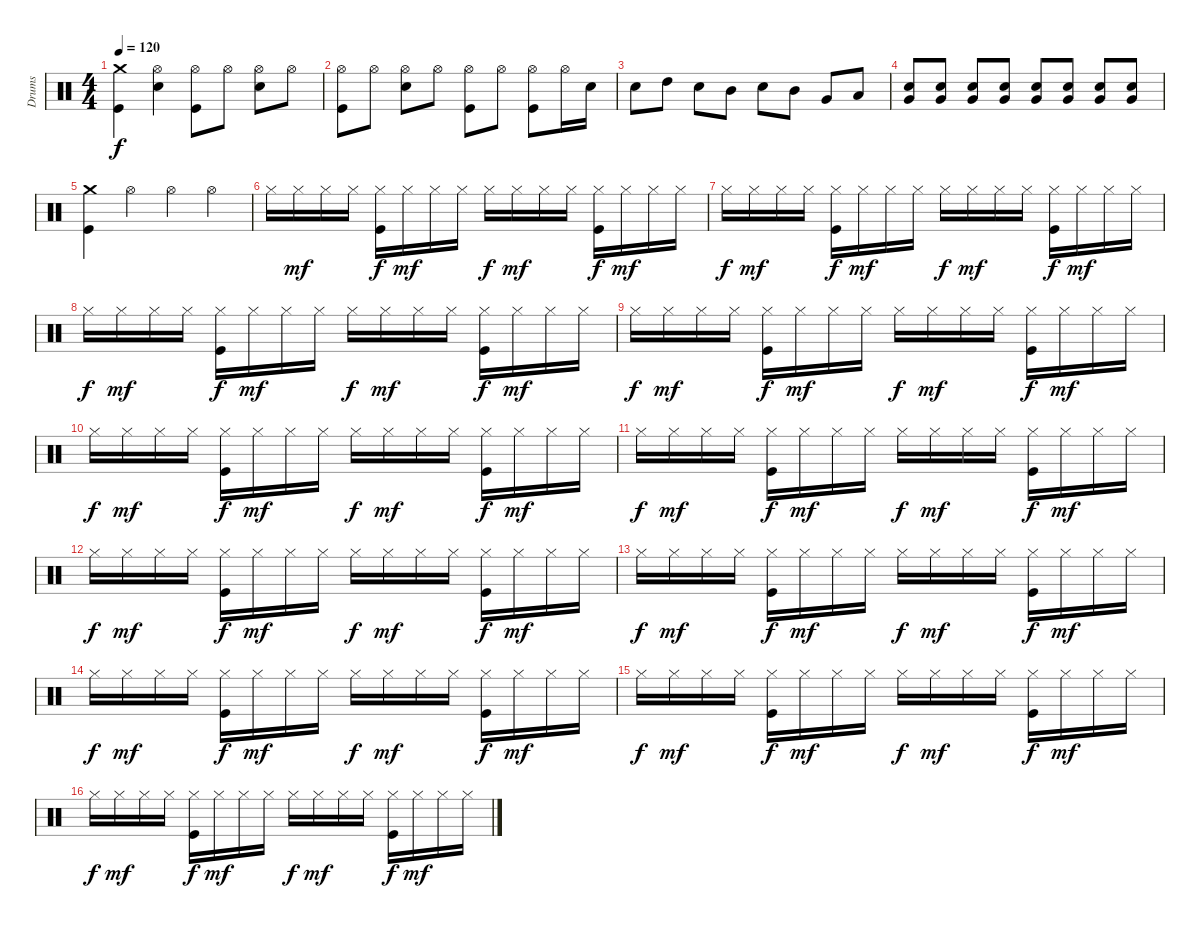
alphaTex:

\track ("Drums" "Drums") {instrument percussion}
\staff {score}
\articulation defaults
\ts (4 4)
\tempo 120
\clef neutral
\ks c
("Kick (hit)" "Crash medium (hit)").4{dy f} ("Electric Snare (hit)" "Hi-Hat (open)").4 ("Kick (hit)" "Hi-Hat (open)").8 "Hi-Hat (open)".8 ("Electric Snare (hit)" "Hi-Hat (open)").8 "Hi-Hat (open)".8 |
("Kick (hit)" "Hi-Hat (open)").8 "Hi-Hat (open)".8 ("Electric Snare (hit)" "Hi-Hat (open)").8 "Hi-Hat (open)".8 ("Kick (hit)" "Hi-Hat (open)").8 "Hi-Hat (open)".8 ("Kick (hit)" "Hi-Hat (open)").8 "Hi-Hat (open)".16 "Electric Snare (hit)".16 |
"Electric Snare (hit)".8 "High Tom (hit)".8 "Electric Snare (hit)".8 "Mid Tom (hit)".8 "Electric Snare (hit)".8 "Mid Tom (hit)".8 "Very Low Tom (hit)".8 "Low Floor Tom (hit)".8 |
("Electric Snare (hit)" "Very Low Tom (hit)").8 ("Electric Snare (hit)" "Very Low Tom (hit)").8 ("Electric Snare (hit)" "Very Low Tom (hit)").8 ("Electric Snare (hit)" "Very Low Tom (hit)").8 ("Electric Snare (hit)" "Very Low Tom (hit)").8 ("Electric Snare (hit)" "Very Low Tom (hit)").8 ("Electric Snare (hit)" "Very Low Tom (hit)").8 ("Electric Snare (hit)" "Very Low Tom (hit)").8 |
("Kick (hit)" "Crash medium (hit)").4 "Hi-Hat (open)".4 "Hi-Hat (open)".4 "Hi-Hat (open)".4 |
"Hi-Hat (closed)".16 "Hi-Hat (closed)".16{dy mf} "Hi-Hat (closed)".16 "Hi-Hat (closed)".16 ("Kick (hit)" "Hi-Hat (closed)").16{dy f} "Hi-Hat (closed)".16{dy mf} "Hi-Hat (closed)".16 "Hi-Hat (closed)".16 "Hi-Hat (closed)".16{dy f} "Hi-Hat (closed)".16{dy mf} "Hi-Hat (closed)".16 "Hi-Hat (closed)".16 ("Kick (hit)" "Hi-Hat (closed)").16{dy f} "Hi-Hat (closed)".16{dy mf} "Hi-Hat (closed)".16 "Hi-Hat (closed)".16 |
"Hi-Hat (closed)".16{dy f} "Hi-Hat (closed)".16{dy mf} "Hi-Hat (closed)".16 "Hi-Hat (closed)".16 ("Kick (hit)" "Hi-Hat (closed)").16{dy f} "Hi-Hat (closed)".16{dy mf} "Hi-Hat (closed)".16 "Hi-Hat (closed)".16 "Hi-Hat (closed)".16{dy f} "Hi-Hat (closed)".16{dy mf} "Hi-Hat (closed)".16 "Hi-Hat (closed)".16 ("Kick (hit)" "Hi-Hat (closed)").16{dy f} "Hi-Hat (closed)".16{dy mf} "Hi-Hat (closed)".16 "Hi-Hat (closed)".16 |
"Hi-Hat (closed)".16{dy f} "Hi-Hat (closed)".16{dy mf} "Hi-Hat (closed)".16 "Hi-Hat (closed)".16 ("Kick (hit)" "Hi-Hat (closed)").16{dy f} "Hi-Hat (closed)".16{dy mf} "Hi-Hat (closed)".16 "Hi-Hat (closed)".16 "Hi-Hat (closed)".16{dy f} "Hi-Hat (closed)".16{dy mf} "Hi-Hat (closed)".16 "Hi-Hat (closed)".16 ("Kick (hit)" "Hi-Hat (closed)").16{dy f} "Hi-Hat (closed)".16{dy mf} "Hi-Hat (closed)".16 "Hi-Hat (closed)".16 |
"Hi-Hat (closed)".16{dy f} "Hi-Hat (closed)".16{dy mf} "Hi-Hat (closed)".16 "Hi-Hat (closed)".16 ("Kick (hit)" "Hi-Hat (closed)").16{dy f} "Hi-Hat (closed)".16{dy mf} "Hi-Hat (closed)".16 "Hi-Hat (closed)".16 "Hi-Hat (closed)".16{dy f} "Hi-Hat (closed)".16{dy mf} "Hi-Hat (closed)".16 "Hi-Hat (closed)".16 ("Kick (hit)" "Hi-Hat (closed)").16{dy f} "Hi-Hat (closed)".16{dy mf} "Hi-Hat (closed)".16 "Hi-Hat (closed)".16 |
"Hi-Hat (closed)".16{dy f} "Hi-Hat (closed)".16{dy mf} "Hi-Hat (closed)".16 "Hi-Hat (closed)".16 ("Kick (hit)" "Hi-Hat (closed)").16{dy f} "Hi-Hat (closed)".16{dy mf} "Hi-Hat (closed)".16 "Hi-Hat (closed)".16 "Hi-Hat (closed)".16{dy f} "Hi-Hat (closed)".16{dy mf} "Hi-Hat (closed)".16 "Hi-Hat (closed)".16 ("Kick (hit)" "Hi-Hat (closed)").16{dy f} "Hi-Hat (closed)".16{dy mf} "Hi-Hat (closed)".16 "Hi-Hat (closed)".16 |
"Hi-Hat (closed)".16{dy f} "Hi-Hat (closed)".16{dy mf} "Hi-Hat (closed)".16 "Hi-Hat (closed)".16 ("Kick (hit)" "Hi-Hat (closed)").16{dy f} "Hi-Hat (closed)".16{dy mf} "Hi-Hat (closed)".16 "Hi-Hat (closed)".16 "Hi-Hat (closed)".16{dy f} "Hi-Hat (closed)".16{dy mf} "Hi-Hat (closed)".16 "Hi-Hat (closed)".16 ("Kick (hit)" "Hi-Hat (closed)").16{dy f} "Hi-Hat (closed)".16{dy mf} "Hi-Hat (closed)".16 "Hi-Hat (closed)".16 |
"Hi-Hat (closed)".16{dy f} "Hi-Hat (closed)".16{dy mf} "Hi-Hat (closed)".16 "Hi-Hat (closed)".16 ("Kick (hit)" "Hi-Hat (closed)").16{dy f} "Hi-Hat (closed)".16{dy mf} "Hi-Hat (closed)".16 "Hi-Hat (closed)".16 "Hi-Hat (closed)".16{dy f} "Hi-Hat (closed)".16{dy mf} "Hi-Hat (closed)".16 "Hi-Hat (closed)".16 ("Kick (hit)" "Hi-Hat (closed)").16{dy f} "Hi-Hat (closed)".16{dy mf} "Hi-Hat (closed)".16 "Hi-Hat (closed)".16 |
"Hi-Hat (closed)".16{dy f} "Hi-Hat (closed)".16{dy mf} "Hi-Hat (closed)".16 "Hi-Hat (closed)".16 ("Kick (hit)" "Hi-Hat (closed)").16{dy f} "Hi-Hat (closed)".16{dy mf} "Hi-Hat (closed)".16 "Hi-Hat (closed)".16 "Hi-Hat (closed)".16{dy f} "Hi-Hat (closed)".16{dy mf} "Hi-Hat (closed)".16 "Hi-Hat (closed)".16 ("Kick (hit)" "Hi-Hat (closed)").16{dy f} "Hi-Hat (closed)".16{dy mf} "Hi-Hat (closed)".16 "Hi-Hat (closed)".16 |
"Hi-Hat (closed)".16{dy f} "Hi-Hat (closed)".16{dy mf} "Hi-Hat (closed)".16 "Hi-Hat (closed)".16 ("Kick (hit)" "Hi-Hat (closed)").16{dy f} "Hi-Hat (closed)".16{dy mf} "Hi-Hat (closed)".16 "Hi-Hat (closed)".16 "Hi-Hat (closed)".16{dy f} "Hi-Hat (closed)".16{dy mf} "Hi-Hat (closed)".16 "Hi-Hat (closed)".16 ("Kick (hit)" "Hi-Hat (closed)").16{dy f} "Hi-Hat (closed)".16{dy mf} "Hi-Hat (closed)".16 "Hi-Hat (closed)".16 |
"Hi-Hat (closed)".16{dy f} "Hi-Hat (closed)".16{dy mf} "Hi-Hat (closed)".16 "Hi-Hat (closed)".16 ("Kick (hit)" "Hi-Hat (closed)").16{dy f} "Hi-Hat (closed)".16{dy mf} "Hi-Hat (closed)".16 "Hi-Hat (closed)".16 "Hi-Hat (closed)".16{dy f} "Hi-Hat (closed)".16{dy mf} "Hi-Hat (closed)".16 "Hi-Hat (closed)".16 ("Kick (hit)" "Hi-Hat (closed)").16{dy f} "Hi-Hat (closed)".16{dy mf} "Hi-Hat (closed)".16 "Hi-Hat (closed)".16 |
"Hi-Hat (closed)".16{dy f} "Hi-Hat (closed)".16{dy mf} "Hi-Hat (closed)".16 "Hi-Hat (closed)".16 ("Kick (hit)" "Hi-Hat (closed)").16{dy f} "Hi-Hat (closed)".16{dy mf} "Hi-Hat (closed)".16 "Hi-Hat (closed)".16 "Hi-Hat (closed)".16{dy f} "Hi-Hat (closed)".16{dy mf} "Hi-Hat (closed)".16 "Hi-Hat (closed)".16 ("Kick (hit)" "Hi-Hat (closed)").16{dy f} "Hi-Hat (closed)".16{dy mf} "Hi-Hat (closed)".16 "Hi-Hat (closed)".16
